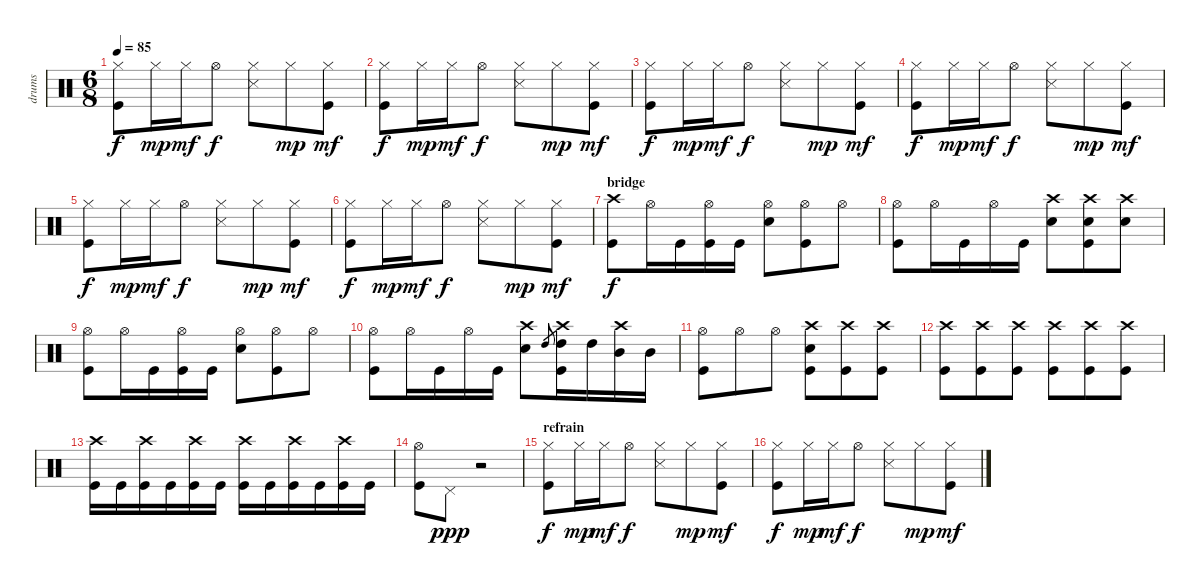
\track ("drums" "drums") {instrument percussion}
\staff {score}
\articulation defaults
\ts (6 8)
\tempo 85
\clef neutral
\ks c
("Hi-Hat (closed)" "Kick (hit)").8{dy f} "Hi-Hat (closed)".16{dy mp} "Hi-Hat (closed)".16{dy mf} "Hi-Hat (open)".8{dy f} ("Hi-Hat (closed)" "Snare (side stick) 3").8 "Hi-Hat (closed)".8{dy mp} ("Hi-Hat (closed)" "Kick (hit)").8{dy mf} |
("Hi-Hat (closed)" "Kick (hit)").8{dy f} "Hi-Hat (closed)".16{dy mp} "Hi-Hat (closed)".16{dy mf} "Hi-Hat (open)".8{dy f} ("Hi-Hat (closed)" "Snare (side stick) 3").8 "Hi-Hat (closed)".8{dy mp} ("Hi-Hat (closed)" "Kick (hit)").8{dy mf} |
("Hi-Hat (closed)" "Kick (hit)").8{dy f} "Hi-Hat (closed)".16{dy mp} "Hi-Hat (closed)".16{dy mf} "Hi-Hat (open)".8{dy f} ("Hi-Hat (closed)" "Snare (side stick) 3").8 "Hi-Hat (closed)".8{dy mp} ("Hi-Hat (closed)" "Kick (hit)").8{dy mf} |
("Hi-Hat (closed)" "Kick (hit)").8{dy f} "Hi-Hat (closed)".16{dy mp} "Hi-Hat (closed)".16{dy mf} "Hi-Hat (open)".8{dy f} ("Hi-Hat (closed)" "Snare (side stick) 3").8 "Hi-Hat (closed)".8{dy mp} ("Hi-Hat (closed)" "Kick (hit)").8{dy mf} |
("Hi-Hat (closed)" "Kick (hit)").8{dy f} "Hi-Hat (closed)".16{dy mp} "Hi-Hat (closed)".16{dy mf} "Hi-Hat (open)".8{dy f} ("Hi-Hat (closed)" "Snare (side stick) 3").8 "Hi-Hat (closed)".8{dy mp} ("Hi-Hat (closed)" "Kick (hit)").8{dy mf} |
("Hi-Hat (closed)" "Kick (hit)").8{dy f} "Hi-Hat (closed)".16{dy mp} "Hi-Hat (closed)".16{dy mf} "Hi-Hat (open)".8{dy f} ("Hi-Hat (closed)" "Snare (side stick) 3").8 "Hi-Hat (closed)".8{dy mp} ("Hi-Hat (closed)" "Kick (hit)").8{dy mf} |
\section ("" "bridge")
("Crash high (hit)" "Kick (hit)").8{dy f} "Hi-Hat (open)".16 "Kick (hit)".16 ("Hi-Hat (open)" "Kick (hit)").16 "Kick (hit)".16 ("Hi-Hat (open)" "Electric Snare (hit)").8 ("Hi-Hat (open)" "Kick (hit)").8 "Hi-Hat (open)".8 |
("Hi-Hat (open)" "Kick (hit)").8 "Hi-Hat (open)".16 "Kick (hit)".16 "Hi-Hat (open)".16 "Kick (hit)".16 ("Crash high (hit)" "Electric Snare (hit)").8 ("Crash high (hit)" "Electric Snare (hit)" "Kick (hit)").8 ("Crash high (hit)" "Electric Snare (hit)").8 |
("Hi-Hat (open)" "Kick (hit)").8 "Hi-Hat (open)".16 "Kick (hit)".16 ("Hi-Hat (open)" "Kick (hit)").16 "Kick (hit)".16 ("Hi-Hat (open)" "Electric Snare (hit)").8 ("Hi-Hat (open)" "Kick (hit)").8 "Hi-Hat (open)".8 |
("Hi-Hat (open)" "Kick (hit)").8 "Hi-Hat (open)".16 "Kick (hit)".16 "Hi-Hat (open)".16 "Kick (hit)".16 ("Crash high (hit)" "Electric Snare (hit)").8 "High Tom (hit)".8{gr} ("Crash high (hit)" "High Tom (hit)" "Kick (hit)").16 "High Tom (hit)".16 ("Crash high (hit)" "Mid Tom (hit)").16 "Mid Tom (hit)".16 |
("Hi-Hat (open)" "Kick (hit)").8 "Hi-Hat (open)".8 "Hi-Hat (open)".8 ("Crash high (hit)" "Electric Snare (hit)" "Kick (hit)").8 ("Crash high (hit)" "Kick (hit)").8 ("Crash high (hit)" "Kick (hit)").8 |
("Crash high (hit)" "Kick (hit)").8 ("Crash high (hit)" "Kick (hit)").8 ("Crash high (hit)" "Kick (hit)").8 ("Crash high (hit)" "Kick (hit)").8 ("Crash high (hit)" "Kick (hit)").8 ("Crash high (hit)" "Kick (hit)").8 |
("Crash high (hit)" "Kick (hit)").16 "Kick (hit)".16 ("Crash high (hit)" "Kick (hit)").16 "Kick (hit)".16 ("Crash high (hit)" "Kick (hit)").16 "Kick (hit)".16 ("Crash high (hit)" "Kick (hit)").16 "Kick (hit)".16 ("Crash high (hit)" "Kick (hit)").16 "Kick (hit)".16 ("Crash high (hit)" "Kick (hit)").16 "Kick (hit)".16 |
("Hi-Hat (open)" "Kick (hit)").8 "Pedal Hi-Hat (hit)".8{dy ppp} r.2 |
\section ("" "refrain")
("Hi-Hat (closed)" "Kick (hit)").8{dy f} "Hi-Hat (closed)".16{dy mp} "Hi-Hat (closed)".16{dy mf} "Hi-Hat (open)".8{dy f} ("Hi-Hat (closed)" "Snare (side stick) 3").8 "Hi-Hat (closed)".8{dy mp} ("Hi-Hat (closed)" "Kick (hit)").8{dy mf} |
("Hi-Hat (closed)" "Kick (hit)").8{dy f} "Hi-Hat (closed)".16{dy mp} "Hi-Hat (closed)".16{dy mf} "Hi-Hat (open)".8{dy f} ("Hi-Hat (closed)" "Snare (side stick) 3").8 "Hi-Hat (closed)".8{dy mp} ("Hi-Hat (closed)" "Kick (hit)").8{dy mf}
